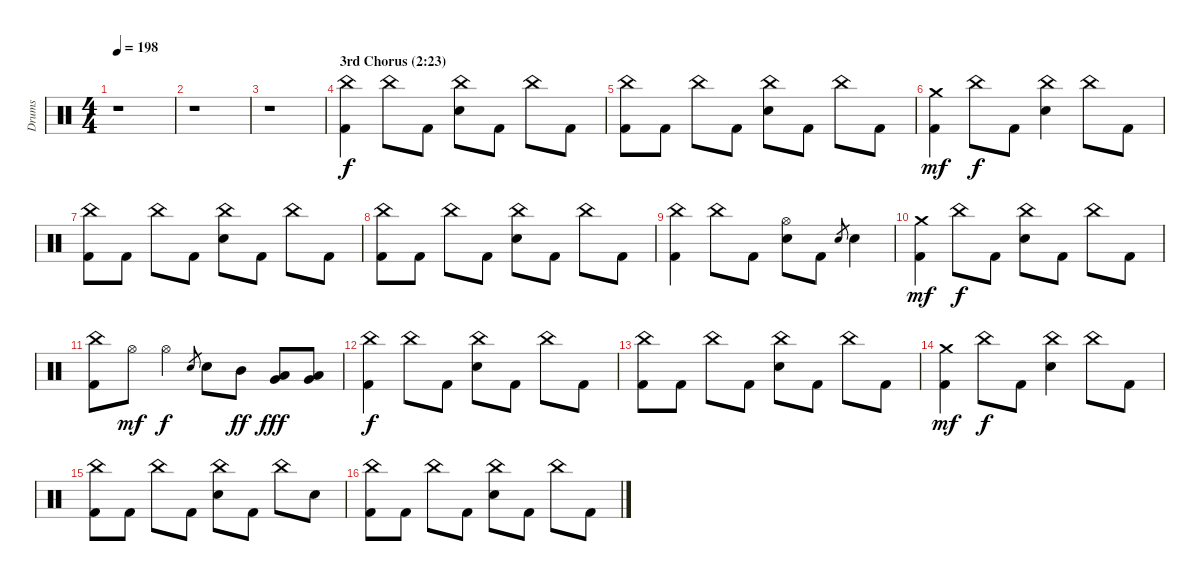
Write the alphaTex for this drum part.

\track ("Drums" "Drums") {instrument percussion}
\staff {score}
\articulation defaults
\ts (4 4)
\tempo 198
\clef neutral
\ks c
r.1{dy f} |
r.1 |
r.1 |
\section ("" "3rd Chorus (2:23)")
("China (hit)" "Kick (hit) 2").4 "China (hit)".8 "Kick (hit) 2".8 ("China (hit)" "Snare (hit) 2").8 "Kick (hit) 2".8 "China (hit)".8 "Kick (hit) 2".8 |
("China (hit)" "Kick (hit) 2").8 "Kick (hit) 2".8 "China (hit)".8 "Kick (hit) 2".8 ("China (hit)" "Snare (hit) 2").8 "Kick (hit) 2".8 "China (hit)".8 "Kick (hit) 2".8 |
("Crash medium (hit)" "Kick (hit) 2").4{dy mf} "China (hit)".8{dy f} "Kick (hit) 2".8 ("China (hit)" "Snare (hit) 2").4 "China (hit)".8 "Kick (hit) 2".8 |
("China (hit)" "Kick (hit) 2").8 "Kick (hit) 2".8 "China (hit)".8 "Kick (hit) 2".8 ("China (hit)" "Snare (hit) 2").8 "Kick (hit) 2".8 "China (hit)".8 "Kick (hit) 2".8 |
("China (hit)" "Kick (hit) 2").8 "Kick (hit) 2".8 "China (hit)".8 "Kick (hit) 2".8 ("China (hit)" "Snare (hit) 2").8 "Kick (hit) 2".8 "China (hit)".8 "Kick (hit) 2".8 |
("China (hit)" "Kick (hit) 2").4 "China (hit)".8 "Kick (hit) 2".8 ("Hi-Hat (open)" "Snare (hit) 2").8 "Kick (hit) 2".8 "Snare (hit) 2".8{gr} "Snare (hit) 2".4 |
("Crash medium (hit)" "Kick (hit) 2").4{dy mf} "China (hit)".8{dy f} "Kick (hit) 2".8 ("China (hit)" "Snare (hit) 2").8 "Kick (hit) 2".8 "China (hit)".8 "Kick (hit) 2".8 |
("China (hit)" "Kick (hit) 2").8 "Hi-Hat (open)".8{dy mf} "Hi-Hat (open)".4{dy f} "Snare (hit) 2".8{gr} "Snare (hit) 2".8 "Mid Tom (hit)".8{dy ff} ("Very Low Tom (hit)" "Low Floor Tom (hit)").8{dy fff} ("Very Low Tom (hit)" "Low Floor Tom (hit)").8 |
("China (hit)" "Kick (hit) 2").4{dy f} "China (hit)".8 "Kick (hit) 2".8 ("China (hit)" "Snare (hit) 2").8 "Kick (hit) 2".8 "China (hit)".8 "Kick (hit) 2".8 |
("China (hit)" "Kick (hit) 2").8 "Kick (hit) 2".8 "China (hit)".8 "Kick (hit) 2".8 ("China (hit)" "Snare (hit) 2").8 "Kick (hit) 2".8 "China (hit)".8 "Kick (hit) 2".8 |
("Crash medium (hit)" "Kick (hit) 2").4{dy mf} "China (hit)".8{dy f} "Kick (hit) 2".8 ("China (hit)" "Snare (hit) 2").4 "China (hit)".8 "Kick (hit) 2".8 |
("China (hit)" "Kick (hit) 2").8 "Kick (hit) 2".8 "China (hit)".8 "Kick (hit) 2".8 ("China (hit)" "Snare (hit) 2").8 "Kick (hit) 2".8 "China (hit)".8 "Snare (hit) 2".8 |
("China (hit)" "Kick (hit) 2").8 "Kick (hit) 2".8 "China (hit)".8 "Kick (hit) 2".8 ("China (hit)" "Snare (hit) 2").8 "Kick (hit) 2".8 "China (hit)".8 "Kick (hit) 2".8
